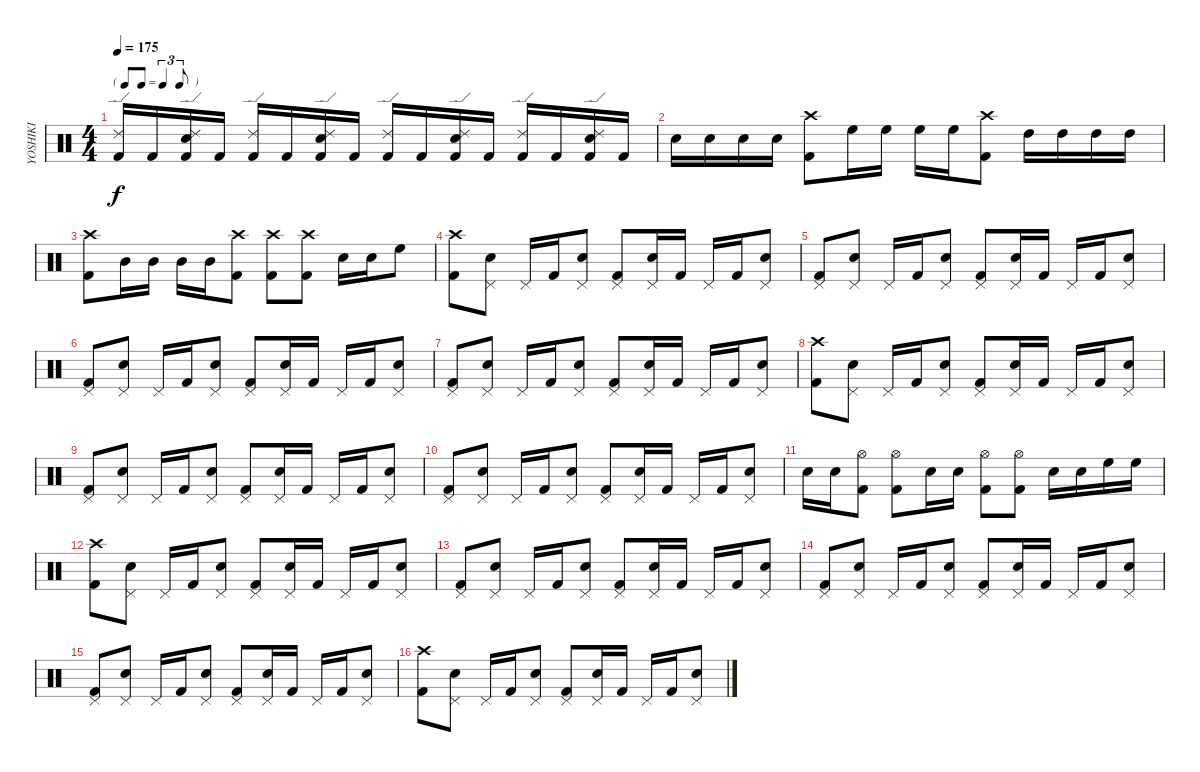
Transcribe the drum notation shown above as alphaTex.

\track ("YOSHIKI" "YOSHIKI") {instrument percussion}
\staff {score}
\articulation defaults
\ts (4 4)
\tf triplet8th
\tempo 175
\clef neutral
\ks c
("Ride (edge) 2" "Kick (hit) 2").16{dy f} "Kick (hit) 2".16 ("Ride (edge) 2" "Snare (hit) 2" "Kick (hit) 2").16 "Kick (hit) 2".16 ("Ride (edge) 2" "Kick (hit) 2").16 "Kick (hit) 2".16 ("Ride (edge) 2" "Snare (hit) 2" "Kick (hit) 2").16 "Kick (hit) 2".16 ("Ride (edge) 2" "Kick (hit) 2").16 "Kick (hit) 2".16 ("Ride (edge) 2" "Snare (hit) 2" "Kick (hit) 2").16 "Kick (hit) 2".16 ("Ride (edge) 2" "Kick (hit) 2").16 "Kick (hit) 2".16 ("Ride (edge) 2" "Snare (hit) 2" "Kick (hit) 2").16 "Kick (hit) 2".16 |
"Snare (hit) 2".16 "Snare (hit) 2".16 "Snare (hit) 2".16 "Snare (hit) 2".16 ("Crash high (hit)" "Kick (hit) 2").8 "High Floor Tom (hit)".16 "High Floor Tom (hit)".16 "High Floor Tom (hit)".16 "High Floor Tom (hit)".16 ("Crash high (hit)" "Kick (hit) 2").8 "High Tom (hit)".16 "High Tom (hit)".16 "High Tom (hit)".16 "High Tom (hit)".16 |
("Crash high (hit)" "Kick (hit) 2").8 "Mid Tom (hit)".16 "Mid Tom (hit)".16 "Mid Tom (hit)".16 "Mid Tom (hit)".16 ("Crash high (hit)" "Kick (hit) 2").8 ("Crash high (hit)" "Kick (hit) 2").8 ("Crash high (hit)" "Kick (hit) 2").8 "Snare (hit) 2".16 "Snare (hit) 2".16 "High Floor Tom (hit)".8 |
("Crash high (hit)" "Kick (hit) 2").8 ("Pedal Hi-Hat (hit)" "Snare (hit) 2").8 "Pedal Hi-Hat (hit)".16 "Kick (hit) 2".16 ("Pedal Hi-Hat (hit)" "Snare (hit) 2").8 ("Pedal Hi-Hat (hit)" "Kick (hit) 2").8 ("Pedal Hi-Hat (hit)" "Snare (hit) 2").16 "Kick (hit) 2".16 "Pedal Hi-Hat (hit)".16 "Kick (hit) 2".16 ("Pedal Hi-Hat (hit)" "Snare (hit) 2").8 |
("Pedal Hi-Hat (hit)" "Kick (hit) 2").8 ("Pedal Hi-Hat (hit)" "Snare (hit) 2").8 "Pedal Hi-Hat (hit)".16 "Kick (hit) 2".16 ("Pedal Hi-Hat (hit)" "Snare (hit) 2").8 ("Pedal Hi-Hat (hit)" "Kick (hit) 2").8 ("Pedal Hi-Hat (hit)" "Snare (hit) 2").16 "Kick (hit) 2".16 "Pedal Hi-Hat (hit)".16 "Kick (hit) 2".16 ("Pedal Hi-Hat (hit)" "Snare (hit) 2").8 |
("Pedal Hi-Hat (hit)" "Kick (hit) 2").8 ("Pedal Hi-Hat (hit)" "Snare (hit) 2").8 "Pedal Hi-Hat (hit)".16 "Kick (hit) 2".16 ("Pedal Hi-Hat (hit)" "Snare (hit) 2").8 ("Pedal Hi-Hat (hit)" "Kick (hit) 2").8 ("Pedal Hi-Hat (hit)" "Snare (hit) 2").16 "Kick (hit) 2".16 "Pedal Hi-Hat (hit)".16 "Kick (hit) 2".16 ("Pedal Hi-Hat (hit)" "Snare (hit) 2").8 |
("Pedal Hi-Hat (hit)" "Kick (hit) 2").8 ("Pedal Hi-Hat (hit)" "Snare (hit) 2").8 "Pedal Hi-Hat (hit)".16 "Kick (hit) 2".16 ("Pedal Hi-Hat (hit)" "Snare (hit) 2").8 ("Pedal Hi-Hat (hit)" "Kick (hit) 2").8 ("Pedal Hi-Hat (hit)" "Snare (hit) 2").16 "Kick (hit) 2".16 "Pedal Hi-Hat (hit)".16 "Kick (hit) 2".16 ("Pedal Hi-Hat (hit)" "Snare (hit) 2").8 |
("Crash high (hit)" "Kick (hit) 2").8 ("Pedal Hi-Hat (hit)" "Snare (hit) 2").8 "Pedal Hi-Hat (hit)".16 "Kick (hit) 2".16 ("Pedal Hi-Hat (hit)" "Snare (hit) 2").8 ("Pedal Hi-Hat (hit)" "Kick (hit) 2").8 ("Pedal Hi-Hat (hit)" "Snare (hit) 2").16 "Kick (hit) 2".16 "Pedal Hi-Hat (hit)".16 "Kick (hit) 2".16 ("Pedal Hi-Hat (hit)" "Snare (hit) 2").8 |
("Pedal Hi-Hat (hit)" "Kick (hit) 2").8 ("Pedal Hi-Hat (hit)" "Snare (hit) 2").8 "Pedal Hi-Hat (hit)".16 "Kick (hit) 2".16 ("Pedal Hi-Hat (hit)" "Snare (hit) 2").8 ("Pedal Hi-Hat (hit)" "Kick (hit) 2").8 ("Pedal Hi-Hat (hit)" "Snare (hit) 2").16 "Kick (hit) 2".16 "Pedal Hi-Hat (hit)".16 "Kick (hit) 2".16 ("Pedal Hi-Hat (hit)" "Snare (hit) 2").8 |
("Pedal Hi-Hat (hit)" "Kick (hit) 2").8 ("Pedal Hi-Hat (hit)" "Snare (hit) 2").8 "Pedal Hi-Hat (hit)".16 "Kick (hit) 2".16 ("Pedal Hi-Hat (hit)" "Snare (hit) 2").8 ("Pedal Hi-Hat (hit)" "Kick (hit) 2").8 ("Pedal Hi-Hat (hit)" "Snare (hit) 2").16 "Kick (hit) 2".16 "Pedal Hi-Hat (hit)".16 "Kick (hit) 2".16 ("Pedal Hi-Hat (hit)" "Snare (hit) 2").8 |
"Snare (hit) 2".16 "Snare (hit) 2".16 ("Hi-Hat (open)" "Kick (hit) 2").8 ("Hi-Hat (open)" "Kick (hit) 2").8 "Snare (hit) 2".16 "Snare (hit) 2".16 ("Hi-Hat (open)" "Kick (hit) 2").8 ("Hi-Hat (open)" "Kick (hit) 2").8 "Snare (hit) 2".16 "Snare (hit) 2".16 "High Floor Tom (hit)".16 "High Floor Tom (hit)".16 |
("Crash high (hit)" "Kick (hit) 2").8 ("Pedal Hi-Hat (hit)" "Snare (hit) 2").8 "Pedal Hi-Hat (hit)".16 "Kick (hit) 2".16 ("Pedal Hi-Hat (hit)" "Snare (hit) 2").8 ("Pedal Hi-Hat (hit)" "Kick (hit) 2").8 ("Pedal Hi-Hat (hit)" "Snare (hit) 2").16 "Kick (hit) 2".16 "Pedal Hi-Hat (hit)".16 "Kick (hit) 2".16 ("Pedal Hi-Hat (hit)" "Snare (hit) 2").8 |
("Pedal Hi-Hat (hit)" "Kick (hit) 2").8 ("Pedal Hi-Hat (hit)" "Snare (hit) 2").8 "Pedal Hi-Hat (hit)".16 "Kick (hit) 2".16 ("Pedal Hi-Hat (hit)" "Snare (hit) 2").8 ("Pedal Hi-Hat (hit)" "Kick (hit) 2").8 ("Pedal Hi-Hat (hit)" "Snare (hit) 2").16 "Kick (hit) 2".16 "Pedal Hi-Hat (hit)".16 "Kick (hit) 2".16 ("Pedal Hi-Hat (hit)" "Snare (hit) 2").8 |
("Pedal Hi-Hat (hit)" "Kick (hit) 2").8 ("Pedal Hi-Hat (hit)" "Snare (hit) 2").8 "Pedal Hi-Hat (hit)".16 "Kick (hit) 2".16 ("Pedal Hi-Hat (hit)" "Snare (hit) 2").8 ("Pedal Hi-Hat (hit)" "Kick (hit) 2").8 ("Pedal Hi-Hat (hit)" "Snare (hit) 2").16 "Kick (hit) 2".16 "Pedal Hi-Hat (hit)".16 "Kick (hit) 2".16 ("Pedal Hi-Hat (hit)" "Snare (hit) 2").8 |
("Pedal Hi-Hat (hit)" "Kick (hit) 2").8 ("Pedal Hi-Hat (hit)" "Snare (hit) 2").8 "Pedal Hi-Hat (hit)".16 "Kick (hit) 2".16 ("Pedal Hi-Hat (hit)" "Snare (hit) 2").8 ("Pedal Hi-Hat (hit)" "Kick (hit) 2").8 ("Pedal Hi-Hat (hit)" "Snare (hit) 2").16 "Kick (hit) 2".16 "Pedal Hi-Hat (hit)".16 "Kick (hit) 2".16 ("Pedal Hi-Hat (hit)" "Snare (hit) 2").8 |
("Crash high (hit)" "Kick (hit) 2").8 ("Pedal Hi-Hat (hit)" "Snare (hit) 2").8 "Pedal Hi-Hat (hit)".16 "Kick (hit) 2".16 ("Pedal Hi-Hat (hit)" "Snare (hit) 2").8 ("Pedal Hi-Hat (hit)" "Kick (hit) 2").8 ("Pedal Hi-Hat (hit)" "Snare (hit) 2").16 "Kick (hit) 2".16 "Pedal Hi-Hat (hit)".16 "Kick (hit) 2".16 ("Pedal Hi-Hat (hit)" "Snare (hit) 2").8
